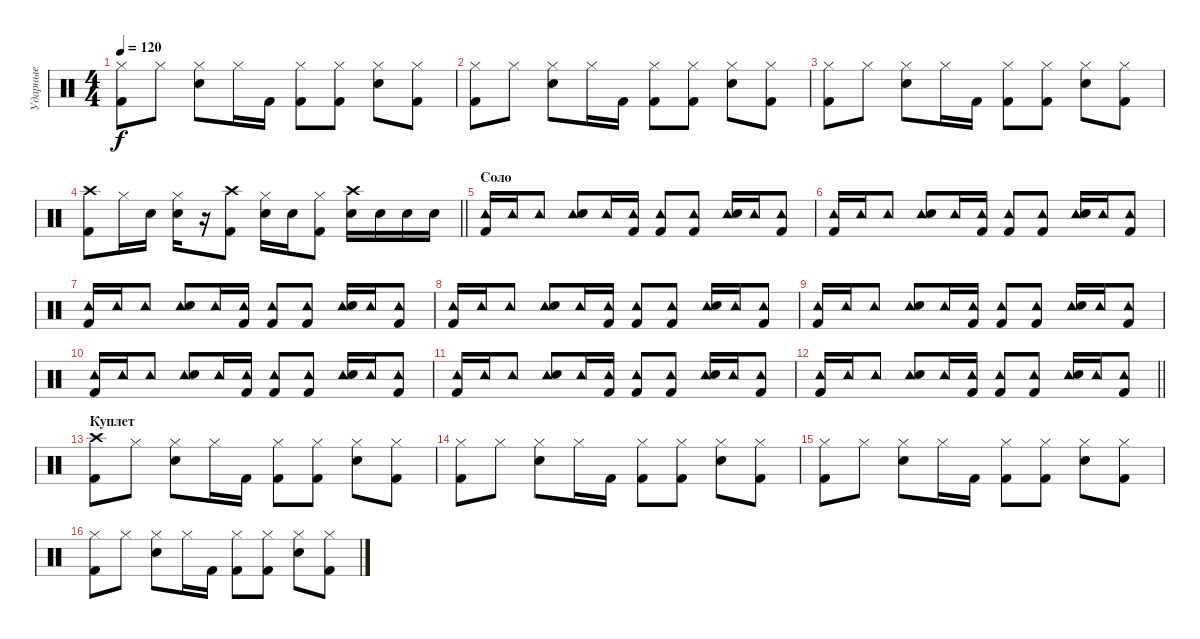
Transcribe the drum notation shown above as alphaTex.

\track ("Ударные" "Ударные") {instrument percussion}
\staff {score}
\articulation defaults
\ts (4 4)
\tempo 120
\clef neutral
\ks c
("Hi-Hat (closed)" "Kick (hit) 2").8{dy f} "Hi-Hat (closed)".8 ("Hi-Hat (closed)" "Snare (hit) 2").8 "Hi-Hat (closed)".16 "Kick (hit) 2".16 ("Hi-Hat (closed)" "Kick (hit) 2").8 ("Hi-Hat (closed)" "Kick (hit) 2").8 ("Hi-Hat (closed)" "Snare (hit) 2").8 ("Hi-Hat (closed)" "Kick (hit) 2").8 |
("Hi-Hat (closed)" "Kick (hit) 2").8 "Hi-Hat (closed)".8 ("Hi-Hat (closed)" "Snare (hit) 2").8 "Hi-Hat (closed)".16 "Kick (hit) 2".16 ("Hi-Hat (closed)" "Kick (hit) 2").8 ("Hi-Hat (closed)" "Kick (hit) 2").8 ("Hi-Hat (closed)" "Snare (hit) 2").8 ("Hi-Hat (closed)" "Kick (hit) 2").8 |
("Hi-Hat (closed)" "Kick (hit) 2").8 "Hi-Hat (closed)".8 ("Hi-Hat (closed)" "Snare (hit) 2").8 "Hi-Hat (closed)".16 "Kick (hit) 2".16 ("Hi-Hat (closed)" "Kick (hit) 2").8 ("Hi-Hat (closed)" "Kick (hit) 2").8 ("Hi-Hat (closed)" "Snare (hit) 2").8 ("Hi-Hat (closed)" "Kick (hit) 2").8 |
\barLineRight lightlight
("Crash high (hit)" "Kick (hit) 2").8 "Hi-Hat (closed)".16 "Snare (hit) 2".16 ("Hi-Hat (closed)" "Snare (hit) 2").16 r.16 ("Crash high (hit)" "Kick (hit) 2").8 ("Hi-Hat (closed)" "Snare (hit) 2").16 "Snare (hit) 2".16 ("Hi-Hat (closed)" "Kick (hit) 2").8 ("Crash high (hit)" "Snare (hit) 2").16 "Snare (hit) 2".16 "Snare (hit) 2".16 "Snare (hit) 2".16 |
\section ("" "Соло")
("Tambourine (hit)" "Kick (hit) 2").16 "Tambourine (hit)".16 "Tambourine (hit)".8 ("Tambourine (hit)" "Snare (hit) 2").8 "Tambourine (hit)".16 ("Tambourine (hit)" "Kick (hit) 2").16 ("Tambourine (hit)" "Kick (hit) 2").8 ("Tambourine (hit)" "Kick (hit) 2").8 ("Tambourine (hit)" "Snare (hit) 2").16 "Tambourine (hit)".16 ("Tambourine (hit)" "Kick (hit) 2").8 |
("Tambourine (hit)" "Kick (hit) 2").16 "Tambourine (hit)".16 "Tambourine (hit)".8 ("Tambourine (hit)" "Snare (hit) 2").8 "Tambourine (hit)".16 ("Tambourine (hit)" "Kick (hit) 2").16 ("Tambourine (hit)" "Kick (hit) 2").8 ("Tambourine (hit)" "Kick (hit) 2").8 ("Tambourine (hit)" "Snare (hit) 2").16 "Tambourine (hit)".16 ("Tambourine (hit)" "Kick (hit) 2").8 |
("Tambourine (hit)" "Kick (hit) 2").16 "Tambourine (hit)".16 "Tambourine (hit)".8 ("Tambourine (hit)" "Snare (hit) 2").8 "Tambourine (hit)".16 ("Tambourine (hit)" "Kick (hit) 2").16 ("Tambourine (hit)" "Kick (hit) 2").8 ("Tambourine (hit)" "Kick (hit) 2").8 ("Tambourine (hit)" "Snare (hit) 2").16 "Tambourine (hit)".16 ("Tambourine (hit)" "Kick (hit) 2").8 |
("Tambourine (hit)" "Kick (hit) 2").16 "Tambourine (hit)".16 "Tambourine (hit)".8 ("Tambourine (hit)" "Snare (hit) 2").8 "Tambourine (hit)".16 ("Tambourine (hit)" "Kick (hit) 2").16 ("Tambourine (hit)" "Kick (hit) 2").8 ("Tambourine (hit)" "Kick (hit) 2").8 ("Tambourine (hit)" "Snare (hit) 2").16 "Tambourine (hit)".16 ("Tambourine (hit)" "Kick (hit) 2").8 |
("Tambourine (hit)" "Kick (hit) 2").16 "Tambourine (hit)".16 "Tambourine (hit)".8 ("Tambourine (hit)" "Snare (hit) 2").8 "Tambourine (hit)".16 ("Tambourine (hit)" "Kick (hit) 2").16 ("Tambourine (hit)" "Kick (hit) 2").8 ("Tambourine (hit)" "Kick (hit) 2").8 ("Tambourine (hit)" "Snare (hit) 2").16 "Tambourine (hit)".16 ("Tambourine (hit)" "Kick (hit) 2").8 |
("Tambourine (hit)" "Kick (hit) 2").16 "Tambourine (hit)".16 "Tambourine (hit)".8 ("Tambourine (hit)" "Snare (hit) 2").8 "Tambourine (hit)".16 ("Tambourine (hit)" "Kick (hit) 2").16 ("Tambourine (hit)" "Kick (hit) 2").8 ("Tambourine (hit)" "Kick (hit) 2").8 ("Tambourine (hit)" "Snare (hit) 2").16 "Tambourine (hit)".16 ("Tambourine (hit)" "Kick (hit) 2").8 |
("Tambourine (hit)" "Kick (hit) 2").16 "Tambourine (hit)".16 "Tambourine (hit)".8 ("Tambourine (hit)" "Snare (hit) 2").8 "Tambourine (hit)".16 ("Tambourine (hit)" "Kick (hit) 2").16 ("Tambourine (hit)" "Kick (hit) 2").8 ("Tambourine (hit)" "Kick (hit) 2").8 ("Tambourine (hit)" "Snare (hit) 2").16 "Tambourine (hit)".16 ("Tambourine (hit)" "Kick (hit) 2").8 |
\barLineRight lightlight
("Tambourine (hit)" "Kick (hit) 2").16 "Tambourine (hit)".16 "Tambourine (hit)".8 ("Tambourine (hit)" "Snare (hit) 2").8 "Tambourine (hit)".16 ("Tambourine (hit)" "Kick (hit) 2").16 ("Tambourine (hit)" "Kick (hit) 2").8 ("Tambourine (hit)" "Kick (hit) 2").8 ("Tambourine (hit)" "Snare (hit) 2").16 "Tambourine (hit)".16 ("Tambourine (hit)" "Kick (hit) 2").8 |
\section ("" "Куплет")
("Crash high (hit)" "Kick (hit) 2").8 "Hi-Hat (closed)".8 ("Hi-Hat (closed)" "Snare (hit) 2").8 "Hi-Hat (closed)".16 "Kick (hit) 2".16 ("Hi-Hat (closed)" "Kick (hit) 2").8 ("Hi-Hat (closed)" "Kick (hit) 2").8 ("Hi-Hat (closed)" "Snare (hit) 2").8 ("Hi-Hat (closed)" "Kick (hit) 2").8 |
("Hi-Hat (closed)" "Kick (hit) 2").8 "Hi-Hat (closed)".8 ("Hi-Hat (closed)" "Snare (hit) 2").8 "Hi-Hat (closed)".16 "Kick (hit) 2".16 ("Hi-Hat (closed)" "Kick (hit) 2").8 ("Hi-Hat (closed)" "Kick (hit) 2").8 ("Hi-Hat (closed)" "Snare (hit) 2").8 ("Hi-Hat (closed)" "Kick (hit) 2").8 |
("Hi-Hat (closed)" "Kick (hit) 2").8 "Hi-Hat (closed)".8 ("Hi-Hat (closed)" "Snare (hit) 2").8 "Hi-Hat (closed)".16 "Kick (hit) 2".16 ("Hi-Hat (closed)" "Kick (hit) 2").8 ("Hi-Hat (closed)" "Kick (hit) 2").8 ("Hi-Hat (closed)" "Snare (hit) 2").8 ("Hi-Hat (closed)" "Kick (hit) 2").8 |
("Hi-Hat (closed)" "Kick (hit) 2").8 "Hi-Hat (closed)".8 ("Hi-Hat (closed)" "Snare (hit) 2").8 "Hi-Hat (closed)".16 "Kick (hit) 2".16 ("Hi-Hat (closed)" "Kick (hit) 2").8 ("Hi-Hat (closed)" "Kick (hit) 2").8 ("Hi-Hat (closed)" "Snare (hit) 2").8 ("Hi-Hat (closed)" "Kick (hit) 2").8
